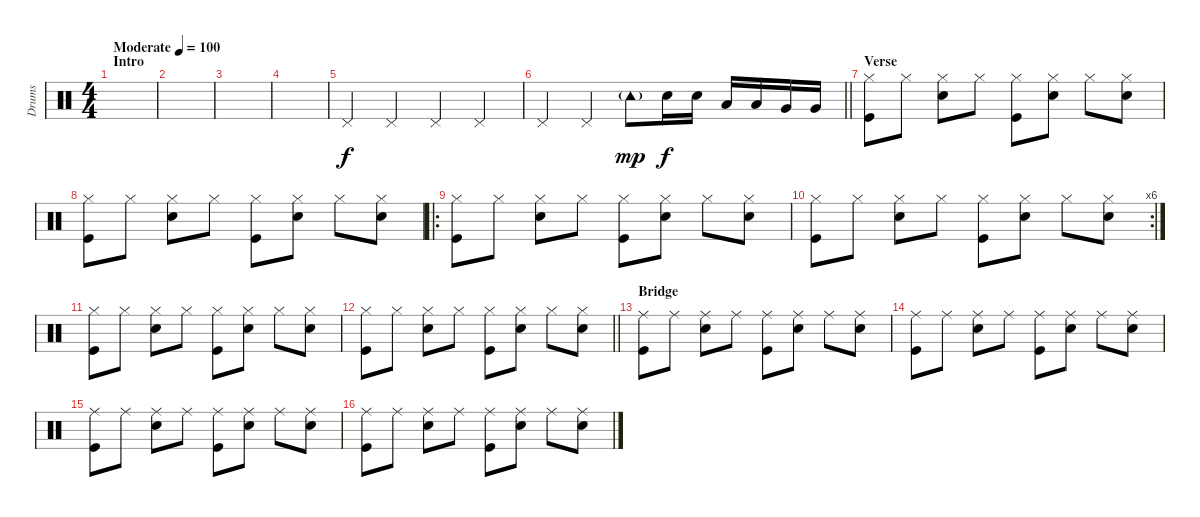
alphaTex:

\track ("Drums" "Drums") {instrument percussion}
\staff {score}
\articulation defaults
\ts (4 4)
\section ("" "Intro")
\tempo (100 "Moderate")
\clef neutral
\ks c
|
|
|
|
"Pedal Hi-Hat (hit)".4 "Pedal Hi-Hat (hit)".4 "Pedal Hi-Hat (hit)".4 "Pedal Hi-Hat (hit)".4 |
\barLineRight lightlight "Pedal Hi-Hat (hit)".4 "Pedal Hi-Hat (hit)".4 "Tambourine (hit)"{g}.8{dy mp} "Snare (hit) 2".16{dy f} "Snare (hit) 2".16 "Low Tom (hit)".16 "Low Tom (hit)".16 "Very Low Tom (hit)".16 "Very Low Tom (hit)".16
|
\section ("" "Verse")
("Hi-Hat (closed)" "Kick (hit)").8 "Hi-Hat (closed)".8 ("Hi-Hat (closed)" "Snare (hit) 2").8 "Hi-Hat (closed)".8 ("Hi-Hat (closed)" "Kick (hit)").8 ("Hi-Hat (closed)" "Snare (hit) 2").8 "Hi-Hat (closed)".8 ("Hi-Hat (closed)" "Snare (hit) 2").8 |
("Hi-Hat (closed)" "Kick (hit)").8 "Hi-Hat (closed)".8 ("Hi-Hat (closed)" "Snare (hit) 2").8 "Hi-Hat (closed)".8 ("Hi-Hat (closed)" "Kick (hit)").8 ("Hi-Hat (closed)" "Snare (hit) 2").8 "Hi-Hat (closed)".8 ("Hi-Hat (closed)" "Snare (hit) 2").8 |
\ro
("Hi-Hat (closed)" "Kick (hit)").8 "Hi-Hat (closed)".8 ("Hi-Hat (closed)" "Snare (hit) 2").8 "Hi-Hat (closed)".8 ("Hi-Hat (closed)" "Kick (hit)").8 ("Hi-Hat (closed)" "Snare (hit) 2").8 "Hi-Hat (closed)".8 ("Hi-Hat (closed)" "Snare (hit) 2").8 |
\rc 6
("Hi-Hat (closed)" "Kick (hit)").8 "Hi-Hat (closed)".8 ("Hi-Hat (closed)" "Snare (hit) 2").8 "Hi-Hat (closed)".8 ("Hi-Hat (closed)" "Kick (hit)").8 ("Hi-Hat (closed)" "Snare (hit) 2").8 "Hi-Hat (closed)".8 ("Hi-Hat (closed)" "Snare (hit) 2").8 |
("Hi-Hat (closed)" "Kick (hit)").8 "Hi-Hat (closed)".8 ("Hi-Hat (closed)" "Snare (hit) 2").8 "Hi-Hat (closed)".8 ("Hi-Hat (closed)" "Kick (hit)").8 ("Hi-Hat (closed)" "Snare (hit) 2").8 "Hi-Hat (closed)".8 ("Hi-Hat (closed)" "Snare (hit) 2").8 |
\barLineRight lightlight
("Hi-Hat (closed)" "Kick (hit)").8 "Hi-Hat (closed)".8 ("Hi-Hat (closed)" "Snare (hit) 2").8 "Hi-Hat (closed)".8 ("Hi-Hat (closed)" "Kick (hit)").8 ("Hi-Hat (closed)" "Snare (hit) 2").8 "Hi-Hat (closed)".8 ("Hi-Hat (closed)" "Snare (hit) 2").8 |
\section ("" "Bridge")
("Ride (middle)" "Kick (hit)").8 "Ride (middle)".8 ("Ride (middle)" "Snare (hit) 2").8 "Ride (middle)".8 ("Ride (middle)" "Kick (hit)").8 ("Ride (middle)" "Snare (hit) 2").8 "Ride (middle)".8 ("Ride (middle)" "Snare (hit) 2").8 |
("Ride (middle)" "Kick (hit)").8 "Ride (middle)".8 ("Ride (middle)" "Snare (hit) 2").8 "Ride (middle)".8 ("Ride (middle)" "Kick (hit)").8 ("Ride (middle)" "Snare (hit) 2").8 "Ride (middle)".8 ("Ride (middle)" "Snare (hit) 2").8 |
("Ride (middle)" "Kick (hit)").8 "Ride (middle)".8 ("Ride (middle)" "Snare (hit) 2").8 "Ride (middle)".8 ("Ride (middle)" "Kick (hit)").8 ("Ride (middle)" "Snare (hit) 2").8 "Ride (middle)".8 ("Ride (middle)" "Snare (hit) 2").8 |
("Ride (middle)" "Kick (hit)").8 "Ride (middle)".8 ("Ride (middle)" "Snare (hit) 2").8 "Ride (middle)".8 ("Ride (middle)" "Kick (hit)").8 ("Ride (middle)" "Snare (hit) 2").8 "Ride (middle)".8 ("Ride (middle)" "Snare (hit) 2").8
